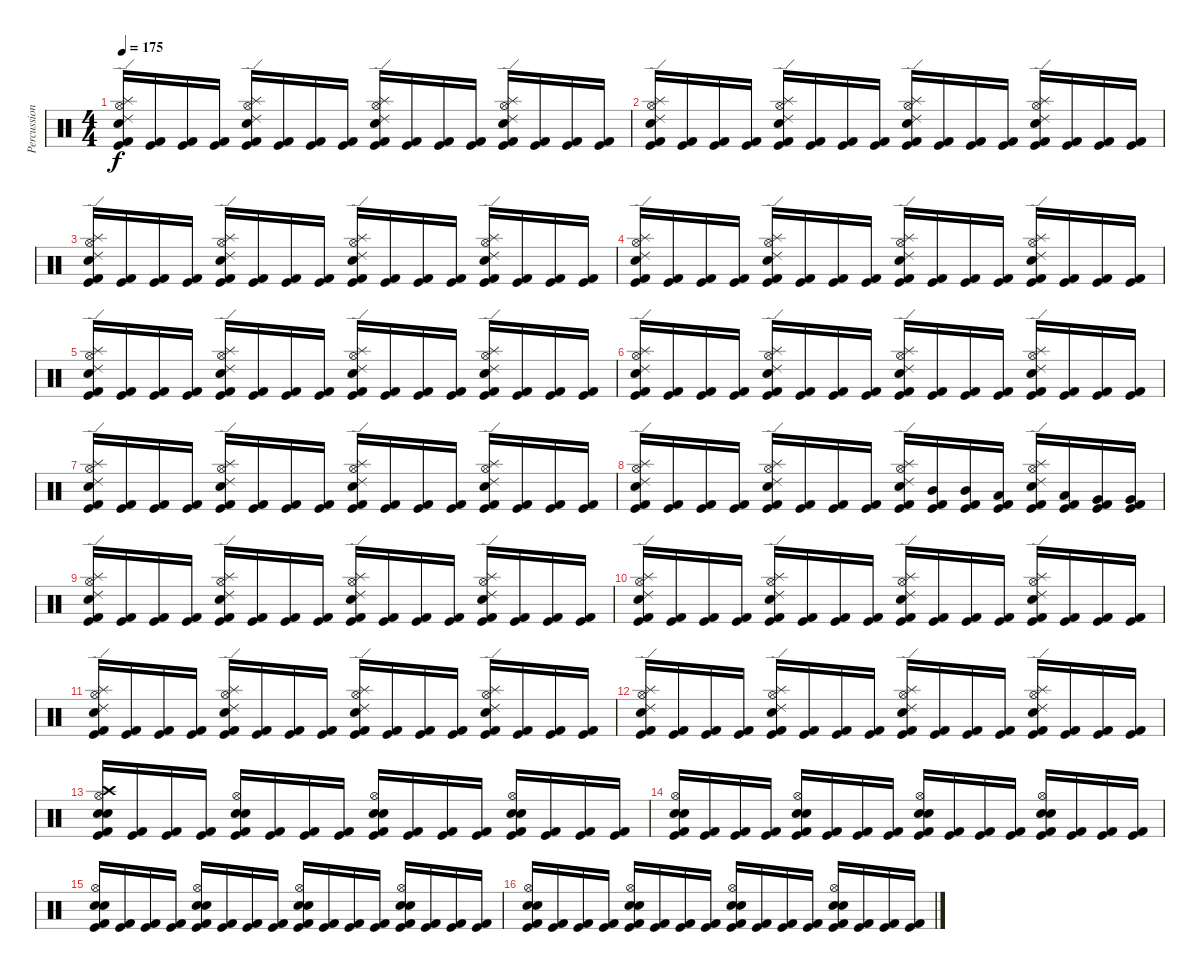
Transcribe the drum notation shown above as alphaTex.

\track ("Percussion" "Percussion") {instrument percussion}
\staff {score}
\articulation defaults
\ts (4 4)
\tempo 175
\clef neutral
\ks c
("Ride (edge) 2" "Splash (hit)" "Electric Snare (hit)" "Hi-Hat (open)" "Kick (hit) 2" "Kick (hit)").16{dy f} ("Kick (hit) 2" "Kick (hit)").16 ("Kick (hit) 2" "Kick (hit)").16 ("Kick (hit) 2" "Kick (hit)").16 ("Ride (edge) 2" "Splash (hit)" "Electric Snare (hit)" "Hi-Hat (open)" "Kick (hit) 2" "Kick (hit)").16 ("Kick (hit) 2" "Kick (hit)").16 ("Kick (hit) 2" "Kick (hit)").16 ("Kick (hit) 2" "Kick (hit)").16 ("Ride (edge) 2" "Splash (hit)" "Electric Snare (hit)" "Hi-Hat (open)" "Kick (hit) 2" "Kick (hit)").16 ("Kick (hit) 2" "Kick (hit)").16 ("Kick (hit) 2" "Kick (hit)").16 ("Kick (hit) 2" "Kick (hit)").16 ("Ride (edge) 2" "Splash (hit)" "Electric Snare (hit)" "Hi-Hat (open)" "Kick (hit) 2" "Kick (hit)").16 ("Kick (hit) 2" "Kick (hit)").16 ("Kick (hit) 2" "Kick (hit)").16 ("Kick (hit) 2" "Kick (hit)").16 |
("Ride (edge) 2" "Splash (hit)" "Electric Snare (hit)" "Hi-Hat (open)" "Kick (hit) 2" "Kick (hit)").16 ("Kick (hit) 2" "Kick (hit)").16 ("Kick (hit) 2" "Kick (hit)").16 ("Kick (hit) 2" "Kick (hit)").16 ("Ride (edge) 2" "Splash (hit)" "Electric Snare (hit)" "Hi-Hat (open)" "Kick (hit) 2" "Kick (hit)").16 ("Kick (hit) 2" "Kick (hit)").16 ("Kick (hit) 2" "Kick (hit)").16 ("Kick (hit) 2" "Kick (hit)").16 ("Ride (edge) 2" "Splash (hit)" "Electric Snare (hit)" "Hi-Hat (open)" "Kick (hit) 2" "Kick (hit)").16 ("Kick (hit) 2" "Kick (hit)").16 ("Kick (hit) 2" "Kick (hit)").16 ("Kick (hit) 2" "Kick (hit)").16 ("Ride (edge) 2" "Splash (hit)" "Electric Snare (hit)" "Hi-Hat (open)" "Kick (hit) 2" "Kick (hit)").16 ("Kick (hit) 2" "Kick (hit)").16 ("Kick (hit) 2" "Kick (hit)").16 ("Kick (hit) 2" "Kick (hit)").16 |
("Ride (edge) 2" "Splash (hit)" "Electric Snare (hit)" "Hi-Hat (open)" "Kick (hit) 2" "Kick (hit)").16 ("Kick (hit) 2" "Kick (hit)").16 ("Kick (hit) 2" "Kick (hit)").16 ("Kick (hit) 2" "Kick (hit)").16 ("Ride (edge) 2" "Splash (hit)" "Electric Snare (hit)" "Hi-Hat (open)" "Kick (hit) 2" "Kick (hit)").16 ("Kick (hit) 2" "Kick (hit)").16 ("Kick (hit) 2" "Kick (hit)").16 ("Kick (hit) 2" "Kick (hit)").16 ("Ride (edge) 2" "Splash (hit)" "Electric Snare (hit)" "Hi-Hat (open)" "Kick (hit) 2" "Kick (hit)").16 ("Kick (hit) 2" "Kick (hit)").16 ("Kick (hit) 2" "Kick (hit)").16 ("Kick (hit) 2" "Kick (hit)").16 ("Ride (edge) 2" "Splash (hit)" "Electric Snare (hit)" "Hi-Hat (open)" "Kick (hit) 2" "Kick (hit)").16 ("Kick (hit) 2" "Kick (hit)").16 ("Kick (hit) 2" "Kick (hit)").16 ("Kick (hit) 2" "Kick (hit)").16 |
("Ride (edge) 2" "Splash (hit)" "Electric Snare (hit)" "Hi-Hat (open)" "Kick (hit) 2" "Kick (hit)").16 ("Kick (hit) 2" "Kick (hit)").16 ("Kick (hit) 2" "Kick (hit)").16 ("Kick (hit) 2" "Kick (hit)").16 ("Ride (edge) 2" "Splash (hit)" "Electric Snare (hit)" "Hi-Hat (open)" "Kick (hit) 2" "Kick (hit)").16 ("Kick (hit) 2" "Kick (hit)").16 ("Kick (hit) 2" "Kick (hit)").16 ("Kick (hit) 2" "Kick (hit)").16 ("Ride (edge) 2" "Splash (hit)" "Electric Snare (hit)" "Hi-Hat (open)" "Kick (hit) 2" "Kick (hit)").16 ("Kick (hit) 2" "Kick (hit)").16 ("Kick (hit) 2" "Kick (hit)").16 ("Kick (hit) 2" "Kick (hit)").16 ("Ride (edge) 2" "Splash (hit)" "Electric Snare (hit)" "Hi-Hat (open)" "Kick (hit) 2" "Kick (hit)").16 ("Kick (hit) 2" "Kick (hit)").16 ("Kick (hit) 2" "Kick (hit)").16 ("Kick (hit) 2" "Kick (hit)").16 |
("Ride (edge) 2" "Splash (hit)" "Electric Snare (hit)" "Hi-Hat (open)" "Kick (hit) 2" "Kick (hit)").16 ("Kick (hit) 2" "Kick (hit)").16 ("Kick (hit) 2" "Kick (hit)").16 ("Kick (hit) 2" "Kick (hit)").16 ("Ride (edge) 2" "Splash (hit)" "Electric Snare (hit)" "Hi-Hat (open)" "Kick (hit) 2" "Kick (hit)").16 ("Kick (hit) 2" "Kick (hit)").16 ("Kick (hit) 2" "Kick (hit)").16 ("Kick (hit) 2" "Kick (hit)").16 ("Ride (edge) 2" "Splash (hit)" "Electric Snare (hit)" "Hi-Hat (open)" "Kick (hit) 2" "Kick (hit)").16 ("Kick (hit) 2" "Kick (hit)").16 ("Kick (hit) 2" "Kick (hit)").16 ("Kick (hit) 2" "Kick (hit)").16 ("Ride (edge) 2" "Splash (hit)" "Electric Snare (hit)" "Hi-Hat (open)" "Kick (hit) 2" "Kick (hit)").16 ("Kick (hit) 2" "Kick (hit)").16 ("Kick (hit) 2" "Kick (hit)").16 ("Kick (hit) 2" "Kick (hit)").16 |
("Ride (edge) 2" "Splash (hit)" "Electric Snare (hit)" "Hi-Hat (open)" "Kick (hit) 2" "Kick (hit)").16 ("Kick (hit) 2" "Kick (hit)").16 ("Kick (hit) 2" "Kick (hit)").16 ("Kick (hit) 2" "Kick (hit)").16 ("Ride (edge) 2" "Splash (hit)" "Electric Snare (hit)" "Hi-Hat (open)" "Kick (hit) 2" "Kick (hit)").16 ("Kick (hit) 2" "Kick (hit)").16 ("Kick (hit) 2" "Kick (hit)").16 ("Kick (hit) 2" "Kick (hit)").16 ("Ride (edge) 2" "Splash (hit)" "Electric Snare (hit)" "Hi-Hat (open)" "Kick (hit) 2" "Kick (hit)").16 ("Kick (hit) 2" "Kick (hit)").16 ("Kick (hit) 2" "Kick (hit)").16 ("Kick (hit) 2" "Kick (hit)").16 ("Ride (edge) 2" "Splash (hit)" "Electric Snare (hit)" "Hi-Hat (open)" "Kick (hit) 2" "Kick (hit)").16 ("Kick (hit) 2" "Kick (hit)").16 ("Kick (hit) 2" "Kick (hit)").16 ("Kick (hit) 2" "Kick (hit)").16 |
("Ride (edge) 2" "Splash (hit)" "Electric Snare (hit)" "Hi-Hat (open)" "Kick (hit) 2" "Kick (hit)").16 ("Kick (hit) 2" "Kick (hit)").16 ("Kick (hit) 2" "Kick (hit)").16 ("Kick (hit) 2" "Kick (hit)").16 ("Ride (edge) 2" "Splash (hit)" "Electric Snare (hit)" "Hi-Hat (open)" "Kick (hit) 2" "Kick (hit)").16 ("Kick (hit) 2" "Kick (hit)").16 ("Kick (hit) 2" "Kick (hit)").16 ("Kick (hit) 2" "Kick (hit)").16 ("Ride (edge) 2" "Splash (hit)" "Electric Snare (hit)" "Hi-Hat (open)" "Kick (hit) 2" "Kick (hit)").16 ("Kick (hit) 2" "Kick (hit)").16 ("Kick (hit) 2" "Kick (hit)").16 ("Kick (hit) 2" "Kick (hit)").16 ("Ride (edge) 2" "Splash (hit)" "Electric Snare (hit)" "Hi-Hat (open)" "Kick (hit) 2" "Kick (hit)").16 ("Kick (hit) 2" "Kick (hit)").16 ("Kick (hit) 2" "Kick (hit)").16 ("Kick (hit) 2" "Kick (hit)").16 |
("Ride (edge) 2" "Splash (hit)" "Electric Snare (hit)" "Hi-Hat (open)" "Kick (hit) 2" "Kick (hit)").16 ("Kick (hit) 2" "Kick (hit)").16 ("Kick (hit) 2" "Kick (hit)").16 ("Kick (hit) 2" "Kick (hit)").16 ("Ride (edge) 2" "Splash (hit)" "Electric Snare (hit)" "Hi-Hat (open)" "Kick (hit) 2" "Kick (hit)").16 ("Kick (hit) 2" "Kick (hit)").16 ("Kick (hit) 2" "Kick (hit)").16 ("Kick (hit) 2" "Kick (hit)").16 ("Ride (edge) 2" "Splash (hit)" "Electric Snare (hit)" "Hi-Hat (open)" "Kick (hit) 2" "Kick (hit)").16 ("Mid Tom (hit)" "Kick (hit) 2" "Kick (hit)").16 ("Mid Tom (hit)" "Kick (hit) 2" "Kick (hit)").16 ("Low Tom (hit)" "Kick (hit) 2" "Kick (hit)").16 ("Ride (edge) 2" "Splash (hit)" "Electric Snare (hit)" "Hi-Hat (open)" "Kick (hit) 2" "Kick (hit)").16 ("Low Tom (hit)" "Kick (hit) 2" "Kick (hit)").16 ("Very Low Tom (hit)" "Kick (hit) 2" "Kick (hit)").16 ("Very Low Tom (hit)" "Kick (hit) 2" "Kick (hit)").16 |
("Ride (edge) 2" "Splash (hit)" "Electric Snare (hit)" "Hi-Hat (open)" "Kick (hit) 2" "Kick (hit)").16 ("Kick (hit) 2" "Kick (hit)").16 ("Kick (hit) 2" "Kick (hit)").16 ("Kick (hit) 2" "Kick (hit)").16 ("Ride (edge) 2" "Splash (hit)" "Electric Snare (hit)" "Hi-Hat (open)" "Kick (hit) 2" "Kick (hit)").16 ("Kick (hit) 2" "Kick (hit)").16 ("Kick (hit) 2" "Kick (hit)").16 ("Kick (hit) 2" "Kick (hit)").16 ("Ride (edge) 2" "Splash (hit)" "Electric Snare (hit)" "Hi-Hat (open)" "Kick (hit) 2" "Kick (hit)").16 ("Kick (hit) 2" "Kick (hit)").16 ("Kick (hit) 2" "Kick (hit)").16 ("Kick (hit) 2" "Kick (hit)").16 ("Ride (edge) 2" "Splash (hit)" "Electric Snare (hit)" "Hi-Hat (open)" "Kick (hit) 2" "Kick (hit)").16 ("Kick (hit) 2" "Kick (hit)").16 ("Kick (hit) 2" "Kick (hit)").16 ("Kick (hit) 2" "Kick (hit)").16 |
("Ride (edge) 2" "Splash (hit)" "Electric Snare (hit)" "Hi-Hat (open)" "Kick (hit) 2" "Kick (hit)").16 ("Kick (hit) 2" "Kick (hit)").16 ("Kick (hit) 2" "Kick (hit)").16 ("Kick (hit) 2" "Kick (hit)").16 ("Ride (edge) 2" "Splash (hit)" "Electric Snare (hit)" "Hi-Hat (open)" "Kick (hit) 2" "Kick (hit)").16 ("Kick (hit) 2" "Kick (hit)").16 ("Kick (hit) 2" "Kick (hit)").16 ("Kick (hit) 2" "Kick (hit)").16 ("Ride (edge) 2" "Splash (hit)" "Electric Snare (hit)" "Hi-Hat (open)" "Kick (hit) 2" "Kick (hit)").16 ("Kick (hit) 2" "Kick (hit)").16 ("Kick (hit) 2" "Kick (hit)").16 ("Kick (hit) 2" "Kick (hit)").16 ("Ride (edge) 2" "Splash (hit)" "Electric Snare (hit)" "Hi-Hat (open)" "Kick (hit) 2" "Kick (hit)").16 ("Kick (hit) 2" "Kick (hit)").16 ("Kick (hit) 2" "Kick (hit)").16 ("Kick (hit) 2" "Kick (hit)").16 |
("Ride (edge) 2" "Splash (hit)" "Electric Snare (hit)" "Hi-Hat (open)" "Kick (hit) 2" "Kick (hit)").16 ("Kick (hit) 2" "Kick (hit)").16 ("Kick (hit) 2" "Kick (hit)").16 ("Kick (hit) 2" "Kick (hit)").16 ("Ride (edge) 2" "Splash (hit)" "Electric Snare (hit)" "Hi-Hat (open)" "Kick (hit) 2" "Kick (hit)").16 ("Kick (hit) 2" "Kick (hit)").16 ("Kick (hit) 2" "Kick (hit)").16 ("Kick (hit) 2" "Kick (hit)").16 ("Ride (edge) 2" "Splash (hit)" "Electric Snare (hit)" "Hi-Hat (open)" "Kick (hit) 2" "Kick (hit)").16 ("Kick (hit) 2" "Kick (hit)").16 ("Kick (hit) 2" "Kick (hit)").16 ("Kick (hit) 2" "Kick (hit)").16 ("Ride (edge) 2" "Splash (hit)" "Electric Snare (hit)" "Hi-Hat (open)" "Kick (hit) 2" "Kick (hit)").16 ("Kick (hit) 2" "Kick (hit)").16 ("Kick (hit) 2" "Kick (hit)").16 ("Kick (hit) 2" "Kick (hit)").16 |
("Ride (edge) 2" "Splash (hit)" "Electric Snare (hit)" "Hi-Hat (open)" "Kick (hit) 2" "Kick (hit)").16 ("Kick (hit) 2" "Kick (hit)").16 ("Kick (hit) 2" "Kick (hit)").16 ("Kick (hit) 2" "Kick (hit)").16 ("Ride (edge) 2" "Splash (hit)" "Electric Snare (hit)" "Hi-Hat (open)" "Kick (hit) 2" "Kick (hit)").16 ("Kick (hit) 2" "Kick (hit)").16 ("Kick (hit) 2" "Kick (hit)").16 ("Kick (hit) 2" "Kick (hit)").16 ("Ride (edge) 2" "Splash (hit)" "Electric Snare (hit)" "Hi-Hat (open)" "Kick (hit) 2" "Kick (hit)").16 ("Kick (hit) 2" "Kick (hit)").16 ("Kick (hit) 2" "Kick (hit)").16 ("Kick (hit) 2" "Kick (hit)").16 ("Ride (edge) 2" "Splash (hit)" "Electric Snare (hit)" "Hi-Hat (open)" "Kick (hit) 2" "Kick (hit)").16 ("Kick (hit) 2" "Kick (hit)").16 ("Kick (hit) 2" "Kick (hit)").16 ("Kick (hit) 2" "Kick (hit)").16 |
("Crash high (hit)" "Hi-Hat (open)" "Electric Snare (hit)" "Snare (hit) 2" "Kick (hit) 2" "Kick (hit)").16 ("Kick (hit) 2" "Kick (hit)").16 ("Kick (hit) 2" "Kick (hit)").16 ("Kick (hit) 2" "Kick (hit)").16 ("Hi-Hat (open)" "Electric Snare (hit)" "Snare (hit) 2" "Kick (hit) 2" "Kick (hit)").16 ("Kick (hit) 2" "Kick (hit)").16 ("Kick (hit) 2" "Kick (hit)").16 ("Kick (hit) 2" "Kick (hit)").16 ("Hi-Hat (open)" "Electric Snare (hit)" "Snare (hit) 2" "Kick (hit) 2" "Kick (hit)").16 ("Kick (hit) 2" "Kick (hit)").16 ("Kick (hit) 2" "Kick (hit)").16 ("Kick (hit) 2" "Kick (hit)").16 ("Hi-Hat (open)" "Electric Snare (hit)" "Snare (hit) 2" "Kick (hit) 2" "Kick (hit)").16 ("Kick (hit) 2" "Kick (hit)").16 ("Kick (hit) 2" "Kick (hit)").16 ("Kick (hit) 2" "Kick (hit)").16 |
("Hi-Hat (open)" "Electric Snare (hit)" "Snare (hit) 2" "Kick (hit) 2" "Kick (hit)").16 ("Kick (hit) 2" "Kick (hit)").16 ("Kick (hit) 2" "Kick (hit)").16 ("Kick (hit) 2" "Kick (hit)").16 ("Hi-Hat (open)" "Electric Snare (hit)" "Snare (hit) 2" "Kick (hit) 2" "Kick (hit)").16 ("Kick (hit) 2" "Kick (hit)").16 ("Kick (hit) 2" "Kick (hit)").16 ("Kick (hit) 2" "Kick (hit)").16 ("Hi-Hat (open)" "Electric Snare (hit)" "Snare (hit) 2" "Kick (hit) 2" "Kick (hit)").16 ("Kick (hit) 2" "Kick (hit)").16 ("Kick (hit) 2" "Kick (hit)").16 ("Kick (hit) 2" "Kick (hit)").16 ("Hi-Hat (open)" "Electric Snare (hit)" "Snare (hit) 2" "Kick (hit) 2" "Kick (hit)").16 ("Kick (hit) 2" "Kick (hit)").16 ("Kick (hit) 2" "Kick (hit)").16 ("Kick (hit) 2" "Kick (hit)").16 |
("Hi-Hat (open)" "Electric Snare (hit)" "Snare (hit) 2" "Kick (hit) 2" "Kick (hit)").16 ("Kick (hit) 2" "Kick (hit)").16 ("Kick (hit) 2" "Kick (hit)").16 ("Kick (hit) 2" "Kick (hit)").16 ("Hi-Hat (open)" "Electric Snare (hit)" "Snare (hit) 2" "Kick (hit) 2" "Kick (hit)").16 ("Kick (hit) 2" "Kick (hit)").16 ("Kick (hit) 2" "Kick (hit)").16 ("Kick (hit) 2" "Kick (hit)").16 ("Hi-Hat (open)" "Electric Snare (hit)" "Snare (hit) 2" "Kick (hit) 2" "Kick (hit)").16 ("Kick (hit) 2" "Kick (hit)").16 ("Kick (hit) 2" "Kick (hit)").16 ("Kick (hit) 2" "Kick (hit)").16 ("Hi-Hat (open)" "Electric Snare (hit)" "Snare (hit) 2" "Kick (hit) 2" "Kick (hit)").16 ("Kick (hit) 2" "Kick (hit)").16 ("Kick (hit) 2" "Kick (hit)").16 ("Kick (hit) 2" "Kick (hit)").16 |
("Hi-Hat (open)" "Electric Snare (hit)" "Snare (hit) 2" "Kick (hit) 2" "Kick (hit)").16 ("Kick (hit) 2" "Kick (hit)").16 ("Kick (hit) 2" "Kick (hit)").16 ("Kick (hit) 2" "Kick (hit)").16 ("Hi-Hat (open)" "Electric Snare (hit)" "Snare (hit) 2" "Kick (hit) 2" "Kick (hit)").16 ("Kick (hit) 2" "Kick (hit)").16 ("Kick (hit) 2" "Kick (hit)").16 ("Kick (hit) 2" "Kick (hit)").16 ("Hi-Hat (open)" "Electric Snare (hit)" "Snare (hit) 2" "Kick (hit) 2" "Kick (hit)").16 ("Kick (hit) 2" "Kick (hit)").16 ("Kick (hit) 2" "Kick (hit)").16 ("Kick (hit) 2" "Kick (hit)").16 ("Hi-Hat (open)" "Electric Snare (hit)" "Snare (hit) 2" "Kick (hit) 2" "Kick (hit)").16 ("Kick (hit) 2" "Kick (hit)").16 ("Kick (hit) 2" "Kick (hit)").16 ("Kick (hit) 2" "Kick (hit)").16
